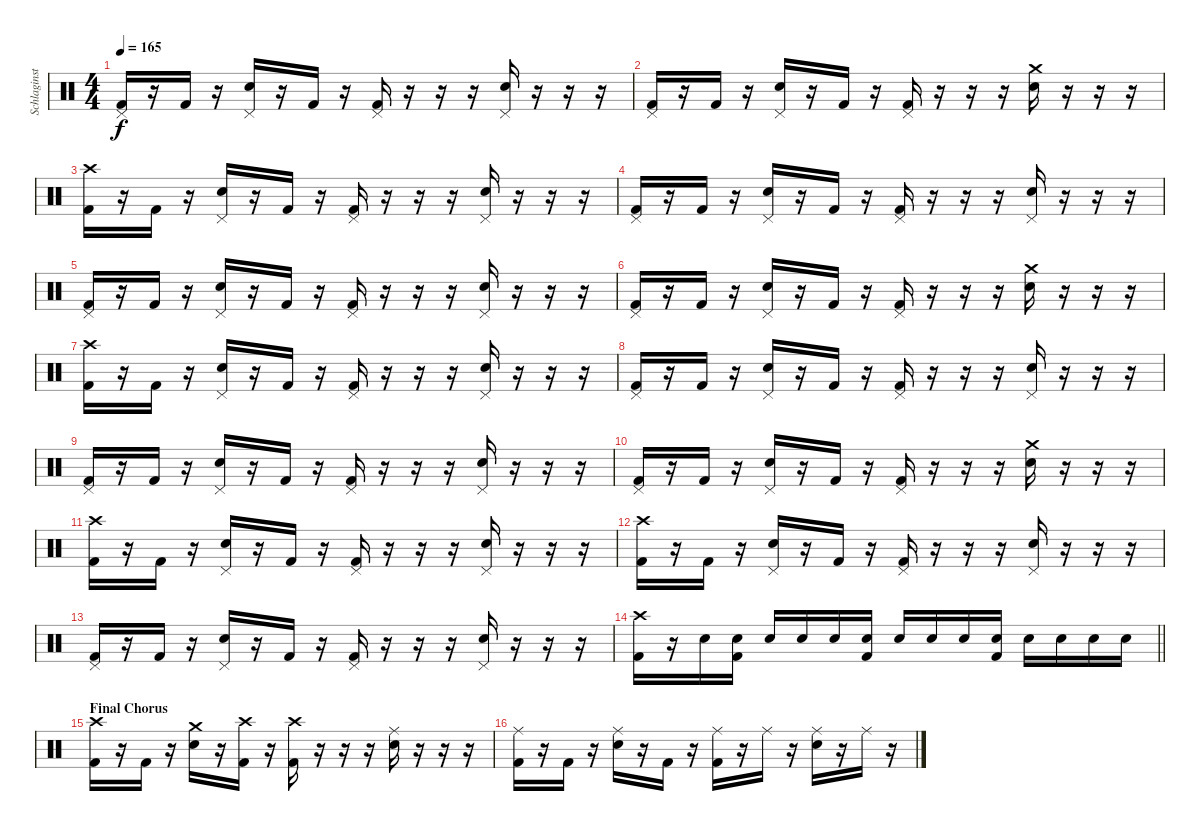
\track ("Schlaginstrumente - Auswahl" "Schlaginst") {instrument percussion}
\staff {score}
\articulation defaults
\ts (4 4)
\tempo 165
\clef neutral
\ks c
("Pedal Hi-Hat (hit)" "Kick (hit) 2").16{dy f} r.16 "Kick (hit) 2".16 r.16 ("Pedal Hi-Hat (hit)" "Electric Snare (hit)").16 r.16 "Kick (hit) 2".16 r.16 ("Pedal Hi-Hat (hit)" "Kick (hit) 2").16 r.16 r.16 r.16 ("Pedal Hi-Hat (hit)" "Electric Snare (hit)").16 r.16 r.16 r.16 |
("Pedal Hi-Hat (hit)" "Kick (hit) 2").16 r.16 "Kick (hit) 2".16 r.16 ("Pedal Hi-Hat (hit)" "Electric Snare (hit)").16 r.16 "Kick (hit) 2".16 r.16 ("Pedal Hi-Hat (hit)" "Kick (hit) 2").16 r.16 r.16 r.16 ("Crash medium (hit)" "Electric Snare (hit)").16 r.16 r.16 r.16 |
("Crash high (hit)" "Kick (hit) 2").16 r.16 "Kick (hit) 2".16 r.16 ("Pedal Hi-Hat (hit)" "Electric Snare (hit)").16 r.16 "Kick (hit) 2".16 r.16 ("Pedal Hi-Hat (hit)" "Kick (hit) 2").16 r.16 r.16 r.16 ("Pedal Hi-Hat (hit)" "Electric Snare (hit)").16 r.16 r.16 r.16 |
("Pedal Hi-Hat (hit)" "Kick (hit) 2").16 r.16 "Kick (hit) 2".16 r.16 ("Pedal Hi-Hat (hit)" "Electric Snare (hit)").16 r.16 "Kick (hit) 2".16 r.16 ("Pedal Hi-Hat (hit)" "Kick (hit) 2").16 r.16 r.16 r.16 ("Pedal Hi-Hat (hit)" "Electric Snare (hit)").16 r.16 r.16 r.16 |
("Pedal Hi-Hat (hit)" "Kick (hit) 2").16 r.16 "Kick (hit) 2".16 r.16 ("Pedal Hi-Hat (hit)" "Electric Snare (hit)").16 r.16 "Kick (hit) 2".16 r.16 ("Pedal Hi-Hat (hit)" "Kick (hit) 2").16 r.16 r.16 r.16 ("Pedal Hi-Hat (hit)" "Electric Snare (hit)").16 r.16 r.16 r.16 |
("Pedal Hi-Hat (hit)" "Kick (hit) 2").16 r.16 "Kick (hit) 2".16 r.16 ("Pedal Hi-Hat (hit)" "Electric Snare (hit)").16 r.16 "Kick (hit) 2".16 r.16 ("Pedal Hi-Hat (hit)" "Kick (hit) 2").16 r.16 r.16 r.16 ("Crash medium (hit)" "Electric Snare (hit)").16 r.16 r.16 r.16 |
("Crash high (hit)" "Kick (hit) 2").16 r.16 "Kick (hit) 2".16 r.16 ("Pedal Hi-Hat (hit)" "Electric Snare (hit)").16 r.16 "Kick (hit) 2".16 r.16 ("Pedal Hi-Hat (hit)" "Kick (hit) 2").16 r.16 r.16 r.16 ("Pedal Hi-Hat (hit)" "Electric Snare (hit)").16 r.16 r.16 r.16 |
("Pedal Hi-Hat (hit)" "Kick (hit) 2").16 r.16 "Kick (hit) 2".16 r.16 ("Pedal Hi-Hat (hit)" "Electric Snare (hit)").16 r.16 "Kick (hit) 2".16 r.16 ("Pedal Hi-Hat (hit)" "Kick (hit) 2").16 r.16 r.16 r.16 ("Pedal Hi-Hat (hit)" "Electric Snare (hit)").16 r.16 r.16 r.16 |
("Pedal Hi-Hat (hit)" "Kick (hit) 2").16 r.16 "Kick (hit) 2".16 r.16 ("Pedal Hi-Hat (hit)" "Electric Snare (hit)").16 r.16 "Kick (hit) 2".16 r.16 ("Pedal Hi-Hat (hit)" "Kick (hit) 2").16 r.16 r.16 r.16 ("Pedal Hi-Hat (hit)" "Electric Snare (hit)").16 r.16 r.16 r.16 |
("Pedal Hi-Hat (hit)" "Kick (hit) 2").16 r.16 "Kick (hit) 2".16 r.16 ("Pedal Hi-Hat (hit)" "Electric Snare (hit)").16 r.16 "Kick (hit) 2".16 r.16 ("Pedal Hi-Hat (hit)" "Kick (hit) 2").16 r.16 r.16 r.16 ("Crash medium (hit)" "Electric Snare (hit)").16 r.16 r.16 r.16 |
("Crash high (hit)" "Kick (hit) 2").16 r.16 "Kick (hit) 2".16 r.16 ("Pedal Hi-Hat (hit)" "Electric Snare (hit)").16 r.16 "Kick (hit) 2".16 r.16 ("Pedal Hi-Hat (hit)" "Kick (hit) 2").16 r.16 r.16 r.16 ("Pedal Hi-Hat (hit)" "Electric Snare (hit)").16 r.16 r.16 r.16 |
("Crash high (hit)" "Kick (hit) 2").16 r.16 "Kick (hit) 2".16 r.16 ("Pedal Hi-Hat (hit)" "Electric Snare (hit)").16 r.16 "Kick (hit) 2".16 r.16 ("Pedal Hi-Hat (hit)" "Kick (hit) 2").16 r.16 r.16 r.16 ("Pedal Hi-Hat (hit)" "Electric Snare (hit)").16 r.16 r.16 r.16 |
("Pedal Hi-Hat (hit)" "Kick (hit) 2").16 r.16 "Kick (hit) 2".16 r.16 ("Pedal Hi-Hat (hit)" "Electric Snare (hit)").16 r.16 "Kick (hit) 2".16 r.16 ("Pedal Hi-Hat (hit)" "Kick (hit) 2").16 r.16 r.16 r.16 ("Pedal Hi-Hat (hit)" "Electric Snare (hit)").16 r.16 r.16 r.16 |
\barLineRight lightlight
("Crash high (hit)" "Kick (hit) 2").16 r.16 "Electric Snare (hit)".16 ("Electric Snare (hit)" "Kick (hit) 2").16 "Electric Snare (hit)".16 "Electric Snare (hit)".16 "Electric Snare (hit)".16 ("Electric Snare (hit)" "Kick (hit) 2").16 "Electric Snare (hit)".16 "Electric Snare (hit)".16 "Electric Snare (hit)".16 ("Electric Snare (hit)" "Kick (hit) 2").16 "Electric Snare (hit)".16 "Electric Snare (hit)".16 "Electric Snare (hit)".16 "Electric Snare (hit)".16 |
\section ("" "Final Chorus")
("Crash high (hit)" "Kick (hit) 2").16 r.16 "Kick (hit) 2".16 r.16 ("Crash medium (hit)" "Electric Snare (hit)").16 r.16 ("Crash high (hit)" "Kick (hit) 2").16 r.16 ("Crash high (hit)" "Kick (hit) 2").16 r.16 r.16 r.16 ("Ride (middle)" "Electric Snare (hit)").16 r.16 r.16 r.16 |
("Ride (middle)" "Kick (hit) 2").16 r.16 "Kick (hit) 2".16 r.16 ("Ride (middle)" "Electric Snare (hit)").16 r.16 "Kick (hit) 2".16 r.16 ("Ride (middle)" "Kick (hit) 2").16 r.16 "Ride (middle)".16 r.16 ("Ride (middle)" "Electric Snare (hit)").16 r.16 "Ride (middle)".16 r.16
